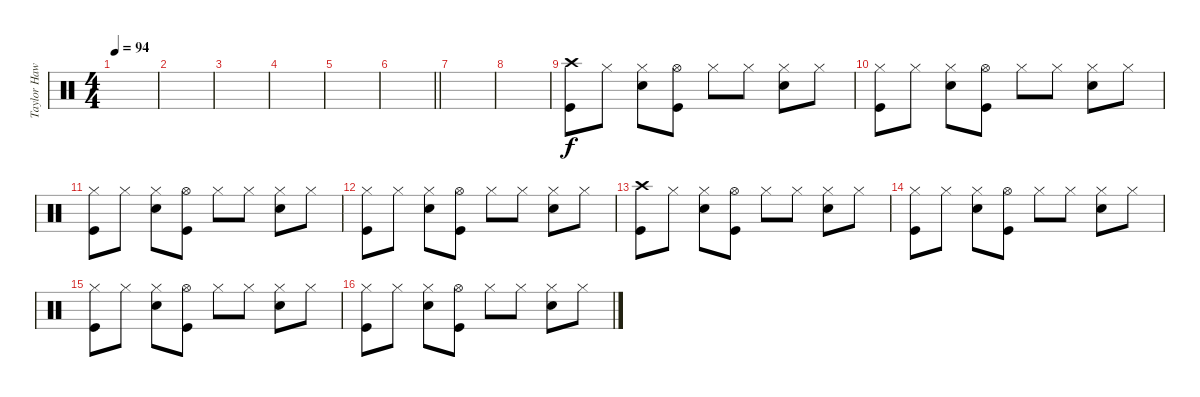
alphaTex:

\track ("Taylor Hawkins - Drums" "Taylor Haw") {instrument percussion}
\staff {score}
\articulation defaults
\ts (4 4)
\tempo 94
\clef neutral
\ks c
|
|
|
|
|
\barLineRight lightlight
|
|
|
("Crash high (hit)" "Kick (hit)").8 "Hi-Hat (closed)".8 ("Hi-Hat (closed)" "Electric Snare (hit)").8 ("Hi-Hat (open)" "Kick (hit)").8 "Hi-Hat (closed)".8 "Hi-Hat (closed)".8 ("Hi-Hat (closed)" "Electric Snare (hit)").8 "Hi-Hat (closed)".8 |
("Hi-Hat (closed)" "Kick (hit)").8 "Hi-Hat (closed)".8 ("Hi-Hat (closed)" "Electric Snare (hit)").8 ("Hi-Hat (open)" "Kick (hit)").8 "Hi-Hat (closed)".8 "Hi-Hat (closed)".8 ("Hi-Hat (closed)" "Electric Snare (hit)").8 "Hi-Hat (closed)".8 |
("Hi-Hat (closed)" "Kick (hit)").8 "Hi-Hat (closed)".8 ("Hi-Hat (closed)" "Electric Snare (hit)").8 ("Hi-Hat (open)" "Kick (hit)").8 "Hi-Hat (closed)".8 "Hi-Hat (closed)".8 ("Hi-Hat (closed)" "Electric Snare (hit)").8 "Hi-Hat (closed)".8 |
("Hi-Hat (closed)" "Kick (hit)").8 "Hi-Hat (closed)".8 ("Hi-Hat (closed)" "Electric Snare (hit)").8 ("Hi-Hat (open)" "Kick (hit)").8 "Hi-Hat (closed)".8 "Hi-Hat (closed)".8 ("Hi-Hat (closed)" "Electric Snare (hit)").8 "Hi-Hat (closed)".8 |
("Crash high (hit)" "Kick (hit)").8 "Hi-Hat (closed)".8 ("Hi-Hat (closed)" "Electric Snare (hit)").8 ("Hi-Hat (open)" "Kick (hit)").8 "Hi-Hat (closed)".8 "Hi-Hat (closed)".8 ("Hi-Hat (closed)" "Electric Snare (hit)").8 "Hi-Hat (closed)".8 |
("Hi-Hat (closed)" "Kick (hit)").8 "Hi-Hat (closed)".8 ("Hi-Hat (closed)" "Electric Snare (hit)").8 ("Hi-Hat (open)" "Kick (hit)").8 "Hi-Hat (closed)".8 "Hi-Hat (closed)".8 ("Hi-Hat (closed)" "Electric Snare (hit)").8 "Hi-Hat (closed)".8 |
("Hi-Hat (closed)" "Kick (hit)").8 "Hi-Hat (closed)".8 ("Hi-Hat (closed)" "Electric Snare (hit)").8 ("Hi-Hat (open)" "Kick (hit)").8 "Hi-Hat (closed)".8 "Hi-Hat (closed)".8 ("Hi-Hat (closed)" "Electric Snare (hit)").8 "Hi-Hat (closed)".8 |
("Hi-Hat (closed)" "Kick (hit)").8 "Hi-Hat (closed)".8 ("Hi-Hat (closed)" "Electric Snare (hit)").8 ("Hi-Hat (open)" "Kick (hit)").8 "Hi-Hat (closed)".8 "Hi-Hat (closed)".8 ("Hi-Hat (closed)" "Electric Snare (hit)").8 "Hi-Hat (closed)".8
